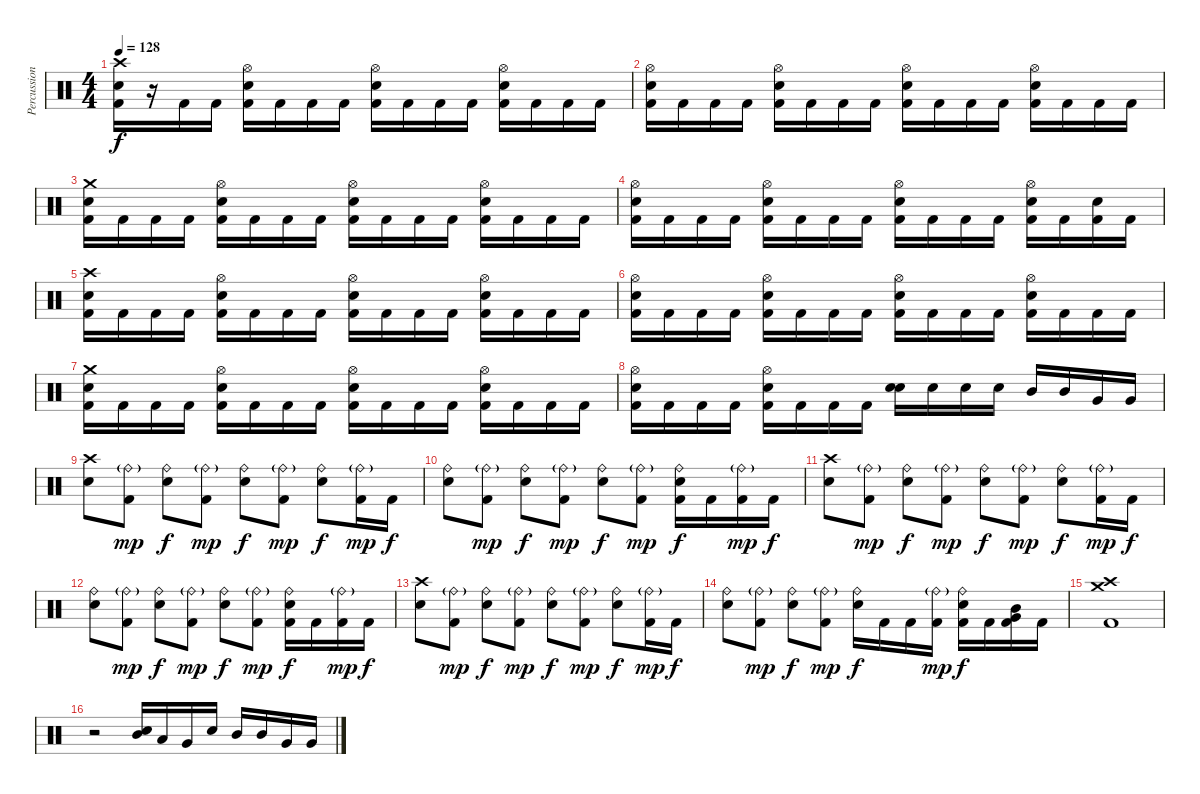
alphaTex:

\track ("Percussion" "Percussion") {instrument percussion}
\staff {score}
\articulation defaults
\ts (4 4)
\tempo 128
\clef neutral
\ks c
("Kick (hit) 2" "Electric Snare (hit)" "Crash high (hit)").16{dy f} r.16 "Kick (hit) 2".16 "Kick (hit) 2".16 ("Kick (hit) 2" "Electric Snare (hit)" "Hi-Hat (open)").16 "Kick (hit) 2".16 "Kick (hit) 2".16 "Kick (hit) 2".16 ("Kick (hit) 2" "Electric Snare (hit)" "Hi-Hat (open)").16 "Kick (hit) 2".16 "Kick (hit) 2".16 "Kick (hit) 2".16 ("Kick (hit) 2" "Electric Snare (hit)" "Hi-Hat (open)").16 "Kick (hit) 2".16 "Kick (hit) 2".16 "Kick (hit) 2".16 |
("Kick (hit) 2" "Electric Snare (hit)" "Hi-Hat (open)").16 "Kick (hit) 2".16 "Kick (hit) 2".16 "Kick (hit) 2".16 ("Kick (hit) 2" "Electric Snare (hit)" "Hi-Hat (open)").16 "Kick (hit) 2".16 "Kick (hit) 2".16 "Kick (hit) 2".16 ("Kick (hit) 2" "Electric Snare (hit)" "Hi-Hat (open)").16 "Kick (hit) 2".16 "Kick (hit) 2".16 "Kick (hit) 2".16 ("Kick (hit) 2" "Electric Snare (hit)" "Hi-Hat (open)").16 "Kick (hit) 2".16 "Kick (hit) 2".16 "Kick (hit) 2".16 |
("Kick (hit) 2" "Electric Snare (hit)" "Crash medium (hit)").16 "Kick (hit) 2".16 "Kick (hit) 2".16 "Kick (hit) 2".16 ("Kick (hit) 2" "Electric Snare (hit)" "Hi-Hat (open)").16 "Kick (hit) 2".16 "Kick (hit) 2".16 "Kick (hit) 2".16 ("Kick (hit) 2" "Electric Snare (hit)" "Hi-Hat (open)").16 "Kick (hit) 2".16 "Kick (hit) 2".16 "Kick (hit) 2".16 ("Kick (hit) 2" "Electric Snare (hit)" "Hi-Hat (open)").16 "Kick (hit) 2".16 "Kick (hit) 2".16 "Kick (hit) 2".16 |
("Kick (hit) 2" "Electric Snare (hit)" "Hi-Hat (open)").16 "Kick (hit) 2".16 "Kick (hit) 2".16 "Kick (hit) 2".16 ("Kick (hit) 2" "Electric Snare (hit)" "Hi-Hat (open)").16 "Kick (hit) 2".16 "Kick (hit) 2".16 "Kick (hit) 2".16 ("Kick (hit) 2" "Electric Snare (hit)" "Hi-Hat (open)").16 "Kick (hit) 2".16 "Kick (hit) 2".16 "Kick (hit) 2".16 ("Kick (hit) 2" "Electric Snare (hit)" "Hi-Hat (open)").16 "Kick (hit) 2".16 ("Kick (hit) 2" "Electric Snare (hit)").16 "Kick (hit) 2".16 |
("Kick (hit) 2" "Electric Snare (hit)" "Crash high (hit)").16 "Kick (hit) 2".16 "Kick (hit) 2".16 "Kick (hit) 2".16 ("Kick (hit) 2" "Electric Snare (hit)" "Hi-Hat (open)").16 "Kick (hit) 2".16 "Kick (hit) 2".16 "Kick (hit) 2".16 ("Kick (hit) 2" "Electric Snare (hit)" "Hi-Hat (open)").16 "Kick (hit) 2".16 "Kick (hit) 2".16 "Kick (hit) 2".16 ("Kick (hit) 2" "Electric Snare (hit)" "Hi-Hat (open)").16 "Kick (hit) 2".16 "Kick (hit) 2".16 "Kick (hit) 2".16 |
("Kick (hit) 2" "Electric Snare (hit)" "Hi-Hat (open)").16 "Kick (hit) 2".16 "Kick (hit) 2".16 "Kick (hit) 2".16 ("Kick (hit) 2" "Electric Snare (hit)" "Hi-Hat (open)").16 "Kick (hit) 2".16 "Kick (hit) 2".16 "Kick (hit) 2".16 ("Kick (hit) 2" "Electric Snare (hit)" "Hi-Hat (open)").16 "Kick (hit) 2".16 "Kick (hit) 2".16 "Kick (hit) 2".16 ("Kick (hit) 2" "Electric Snare (hit)" "Hi-Hat (open)").16 "Kick (hit) 2".16 "Kick (hit) 2".16 "Kick (hit) 2".16 |
("Kick (hit) 2" "Electric Snare (hit)" "Crash medium (hit)").16 "Kick (hit) 2".16 "Kick (hit) 2".16 "Kick (hit) 2".16 ("Kick (hit) 2" "Electric Snare (hit)" "Hi-Hat (open)").16 "Kick (hit) 2".16 "Kick (hit) 2".16 "Kick (hit) 2".16 ("Kick (hit) 2" "Electric Snare (hit)" "Hi-Hat (open)").16 "Kick (hit) 2".16 "Kick (hit) 2".16 "Kick (hit) 2".16 ("Kick (hit) 2" "Electric Snare (hit)" "Hi-Hat (open)").16 "Kick (hit) 2".16 "Kick (hit) 2".16 "Kick (hit) 2".16 |
("Kick (hit) 2" "Electric Snare (hit)" "Hi-Hat (open)").16 "Kick (hit) 2".16 "Kick (hit) 2".16 "Kick (hit) 2".16 ("Kick (hit) 2" "Electric Snare (hit)" "Hi-Hat (open)").16 "Kick (hit) 2".16 "Kick (hit) 2".16 "Kick (hit) 2".16 ("Electric Snare (hit)" "Electric Snare (hit)").16{bd 240} "Electric Snare (hit)".16 "Electric Snare (hit)".16 "Electric Snare (hit)".16 "Mid Tom (hit)".16 "Mid Tom (hit)".16 "Very Low Tom (hit)".16 "Very Low Tom (hit)".16 |
("Electric Snare (hit)" "Crash high (hit)").8 ("Kick (hit) 2" "Ride (bell)"{g}).8{dy mp} ("Electric Snare (hit)" "Ride (bell)").8{dy f} ("Kick (hit) 2" "Ride (bell)"{g}).8{dy mp} ("Electric Snare (hit)" "Ride (bell)").8{dy f} ("Kick (hit) 2" "Ride (bell)"{g}).8{dy mp} ("Electric Snare (hit)" "Ride (bell)").8{dy f} ("Kick (hit) 2" "Ride (bell)"{g}).16{dy mp} "Kick (hit) 2".16{dy f} |
("Electric Snare (hit)" "Ride (bell)").8 ("Kick (hit) 2" "Ride (bell)"{g}).8{dy mp} ("Electric Snare (hit)" "Ride (bell)").8{dy f} ("Kick (hit) 2" "Ride (bell)"{g}).8{dy mp} ("Electric Snare (hit)" "Ride (bell)").8{dy f} ("Kick (hit) 2" "Ride (bell)"{g}).8{dy mp} ("Kick (hit) 2" "Electric Snare (hit)" "Ride (bell)").16{dy f} "Kick (hit) 2".16 ("Kick (hit) 2" "Ride (bell)"{g}).16{dy mp} "Kick (hit) 2".16{dy f} |
("Electric Snare (hit)" "Crash high (hit)").8 ("Kick (hit) 2" "Ride (bell)"{g}).8{dy mp} ("Electric Snare (hit)" "Ride (bell)").8{dy f} ("Kick (hit) 2" "Ride (bell)"{g}).8{dy mp} ("Electric Snare (hit)" "Ride (bell)").8{dy f} ("Kick (hit) 2" "Ride (bell)"{g}).8{dy mp} ("Electric Snare (hit)" "Ride (bell)").8{dy f} ("Kick (hit) 2" "Ride (bell)"{g}).16{dy mp} "Kick (hit) 2".16{dy f} |
("Electric Snare (hit)" "Ride (bell)").8 ("Kick (hit) 2" "Ride (bell)"{g}).8{dy mp} ("Electric Snare (hit)" "Ride (bell)").8{dy f} ("Kick (hit) 2" "Ride (bell)"{g}).8{dy mp} ("Electric Snare (hit)" "Ride (bell)").8{dy f} ("Kick (hit) 2" "Ride (bell)"{g}).8{dy mp} ("Kick (hit) 2" "Electric Snare (hit)" "Ride (bell)").16{dy f} "Kick (hit) 2".16 ("Kick (hit) 2" "Ride (bell)"{g}).16{dy mp} "Kick (hit) 2".16{dy f} |
("Electric Snare (hit)" "Crash high (hit)").8 ("Kick (hit) 2" "Ride (bell)"{g}).8{dy mp} ("Electric Snare (hit)" "Ride (bell)").8{dy f} ("Kick (hit) 2" "Ride (bell)"{g}).8{dy mp} ("Electric Snare (hit)" "Ride (bell)").8{dy f} ("Kick (hit) 2" "Ride (bell)"{g}).8{dy mp} ("Electric Snare (hit)" "Ride (bell)").8{dy f} ("Kick (hit) 2" "Ride (bell)"{g}).16{dy mp} "Kick (hit) 2".16{dy f} |
("Electric Snare (hit)" "Ride (bell)").8 ("Kick (hit) 2" "Ride (bell)"{g}).8{dy mp} ("Electric Snare (hit)" "Ride (bell)").8{dy f} ("Kick (hit) 2" "Ride (bell)"{g}).8{dy mp} ("Electric Snare (hit)" "Ride (bell)").16{dy f} "Kick (hit) 2".16 "Kick (hit) 2".16 ("Kick (hit) 2" "Ride (bell)"{g}).16{dy mp} ("Kick (hit) 2" "Electric Snare (hit)" "Ride (bell)").16{dy f} "Kick (hit) 2".16 ("Kick (hit) 2" "Very Low Tom (hit)" "Mid Tom (hit)").16 "Kick (hit) 2".16 |
("Kick (hit) 2" "Crash medium (hit)" "Crash high (hit)").1 |
r.2 ("Electric Snare (hit)" "Mid Tom (hit)").16 "Low Tom (hit)".16 "Very Low Tom (hit)".16 "Electric Snare (hit)".16 "Mid Tom (hit)".16 "Mid Tom (hit)".16 "Very Low Tom (hit)".16 "Very Low Tom (hit)".16
